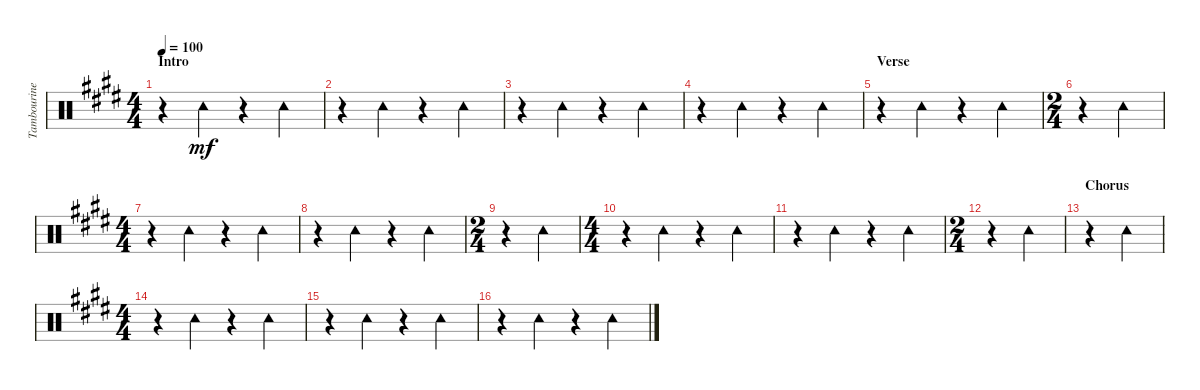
\track ("Tambourine" "Tambourine") {instrument percussion}
\staff {score}
\articulation defaults
\ts (4 4)
\section ("" "Intro")
\tempo 100
\clef neutral
\ks e
r.4{dy mf} "Tambourine (hit)".4 r.4 "Tambourine (hit)".4 |
r.4 "Tambourine (hit)".4 r.4 "Tambourine (hit)".4 |
r.4 "Tambourine (hit)".4 r.4 "Tambourine (hit)".4 |
r.4 "Tambourine (hit)".4 r.4 "Tambourine (hit)".4 |
\section ("" "Verse")
r.4 "Tambourine (hit)".4 r.4 "Tambourine (hit)".4 |
\ts (2 4)
r.4 "Tambourine (hit)".4 |
\ts (4 4)
r.4 "Tambourine (hit)".4 r.4 "Tambourine (hit)".4 |
r.4 "Tambourine (hit)".4 r.4 "Tambourine (hit)".4 |
\ts (2 4)
r.4 "Tambourine (hit)".4 |
\ts (4 4)
r.4 "Tambourine (hit)".4 r.4 "Tambourine (hit)".4 |
r.4 "Tambourine (hit)".4 r.4 "Tambourine (hit)".4 |
\ts (2 4)
r.4 "Tambourine (hit)".4 |
\section ("" "Chorus")
r.4 "Tambourine (hit)".4 |
\ts (4 4)
r.4 "Tambourine (hit)".4 r.4 "Tambourine (hit)".4 |
r.4 "Tambourine (hit)".4 r.4 "Tambourine (hit)".4 |
r.4 "Tambourine (hit)".4 r.4 "Tambourine (hit)".4
